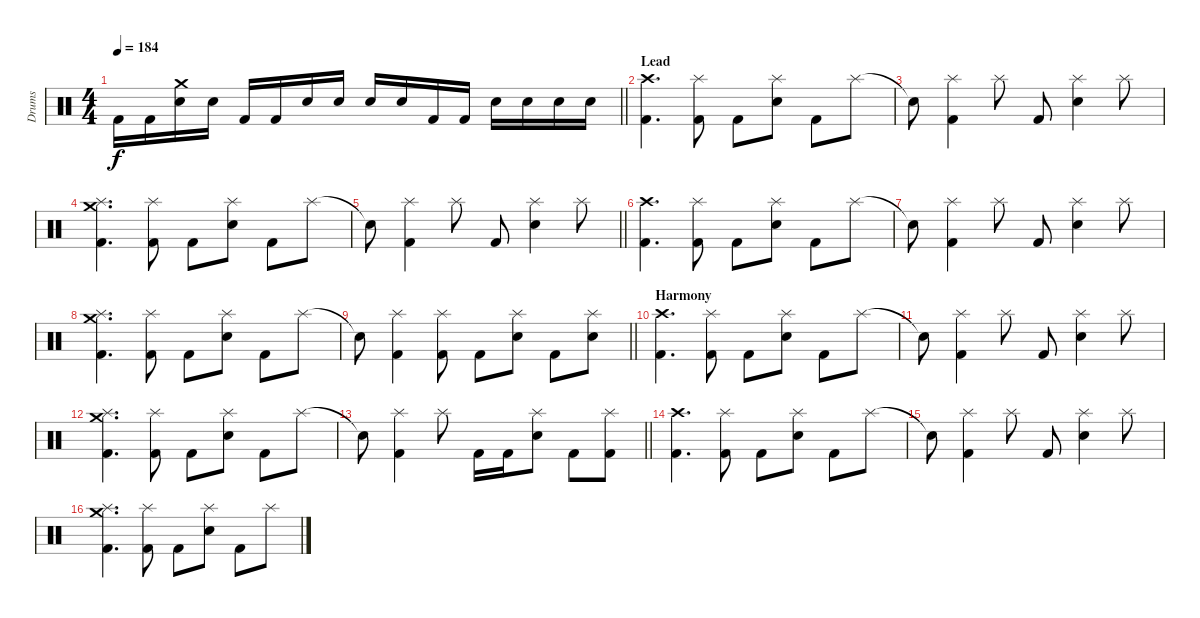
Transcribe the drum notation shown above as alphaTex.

\track ("Drums" "Drums") {instrument percussion}
\staff {score}
\articulation defaults
\ts (4 4)
\tempo 184
\clef neutral
\barLineRight lightlight
\ks c "Kick (hit) 2".16{dy f} "Kick (hit) 2".16
("Snare (hit) 2" "Crash medium (hit)").16 "Snare (hit) 2".16 "Kick (hit) 2".16 "Kick (hit) 2".16 "Snare (hit) 2".16 "Snare (hit) 2".16 "Snare (hit) 2".16 "Snare (hit) 2".16 "Kick (hit) 2".16 "Kick (hit) 2".16 "Snare (hit) 2".16 "Snare (hit) 2".16 "Snare (hit) 2".16 "Snare (hit) 2".16 |
\section ("" "Lead")
("Kick (hit) 2" "Crash high (hit)").4{d} ("Kick (hit) 2" "Splash (hit)").8 "Kick (hit) 2".8 ("Snare (hit) 2" "Splash (hit)").8 "Kick (hit) 2".8 "Splash (hit)".8 |
"Snare (hit)"{t}.8 ("Kick (hit) 2" "Splash (hit)").4 "Splash (hit)".8 "Kick (hit) 2".8 ("Snare (hit) 2" "Splash (hit)").4 "Splash (hit)".8 |
("Kick (hit) 2" "Splash (hit)" "Crash medium (hit)").4{d} ("Kick (hit) 2" "Splash (hit)").8 "Kick (hit) 2".8 ("Snare (hit) 2" "Splash (hit)").8 "Kick (hit) 2".8 "Splash (hit)".8 |
\barLineRight lightlight "Snare (hit)"{t}.8
("Kick (hit) 2" "Splash (hit)").4 "Splash (hit)".8 "Kick (hit) 2".8 ("Snare (hit) 2" "Splash (hit)").4 "Splash (hit)".8 |
\section ("" "")
("Kick (hit) 2" "Crash high (hit)").4{d} ("Kick (hit) 2" "Splash (hit)").8 "Kick (hit) 2".8 ("Snare (hit) 2" "Splash (hit)").8 "Kick (hit) 2".8 "Splash (hit)".8 |
"Snare (hit)"{t}.8 ("Kick (hit) 2" "Splash (hit)").4 "Splash (hit)".8 "Kick (hit) 2".8 ("Snare (hit) 2" "Splash (hit)").4 "Splash (hit)".8 |
("Kick (hit) 2" "Splash (hit)" "Crash medium (hit)").4{d} ("Kick (hit) 2" "Splash (hit)").8 "Kick (hit) 2".8 ("Snare (hit) 2" "Splash (hit)").8 "Kick (hit) 2".8 "Splash (hit)".8 |
\barLineRight lightlight "Snare (hit)"{t}.8
("Kick (hit) 2" "Splash (hit)").4 ("Kick (hit) 2" "Splash (hit)").8 "Kick (hit) 2".8 ("Snare (hit) 2" "Splash (hit)").8 "Kick (hit) 2".8 ("Snare (hit) 2" "Splash (hit)").8 |
\section ("" "Harmony")
("Kick (hit) 2" "Crash high (hit)").4{d} ("Kick (hit) 2" "Splash (hit)").8 "Kick (hit) 2".8 ("Snare (hit) 2" "Splash (hit)").8 "Kick (hit) 2".8 "Splash (hit)".8 |
"Snare (hit)"{t}.8 ("Kick (hit) 2" "Splash (hit)").4 "Splash (hit)".8 "Kick (hit) 2".8 ("Snare (hit) 2" "Splash (hit)").4 "Splash (hit)".8 |
("Kick (hit) 2" "Splash (hit)" "Crash medium (hit)").4{d} ("Kick (hit) 2" "Splash (hit)").8 "Kick (hit) 2".8 ("Snare (hit) 2" "Splash (hit)").8 "Kick (hit) 2".8 "Splash (hit)".8 |
\barLineRight lightlight "Snare (hit)"{t}.8
("Kick (hit) 2" "Splash (hit)").4 "Splash (hit)".8 "Kick (hit) 2".16 "Kick (hit) 2".16 ("Snare (hit) 2" "Splash (hit)").8 "Kick (hit) 2".8 ("Kick (hit) 2" "Splash (hit)").8 |
\section ("" "")
("Kick (hit) 2" "Crash high (hit)").4{d} ("Kick (hit) 2" "Splash (hit)").8 "Kick (hit) 2".8 ("Snare (hit) 2" "Splash (hit)").8 "Kick (hit) 2".8 "Splash (hit)".8 |
"Snare (hit)"{t}.8 ("Kick (hit) 2" "Splash (hit)").4 "Splash (hit)".8 "Kick (hit) 2".8 ("Snare (hit) 2" "Splash (hit)").4 "Splash (hit)".8 |
("Kick (hit) 2" "Splash (hit)" "Crash medium (hit)").4{d} ("Kick (hit) 2" "Splash (hit)").8 "Kick (hit) 2".8 ("Snare (hit) 2" "Splash (hit)").8 "Kick (hit) 2".8 "Splash (hit)".8
